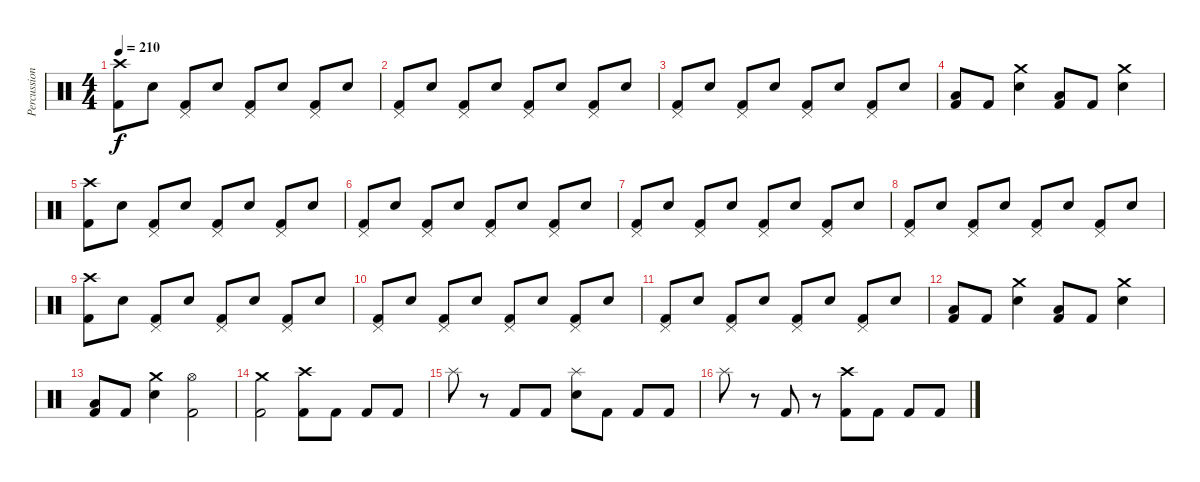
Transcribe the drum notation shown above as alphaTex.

\track ("Percussion" "Percussion") {instrument percussion}
\staff {score}
\articulation defaults
\ts (4 4)
\tempo 210
\clef neutral
\ks c
("Crash high (hit)" "Kick (hit) 2").8{dy f} "Snare (hit) 2".8 ("Pedal Hi-Hat (hit)" "Kick (hit) 2").8 "Snare (hit) 2".8 ("Pedal Hi-Hat (hit)" "Kick (hit) 2").8 "Snare (hit) 2".8 ("Pedal Hi-Hat (hit)" "Kick (hit) 2").8 "Snare (hit) 2".8 |
("Pedal Hi-Hat (hit)" "Kick (hit) 2").8 "Snare (hit) 2".8 ("Pedal Hi-Hat (hit)" "Kick (hit) 2").8 "Snare (hit) 2".8 ("Pedal Hi-Hat (hit)" "Kick (hit) 2").8 "Snare (hit) 2".8 ("Pedal Hi-Hat (hit)" "Kick (hit) 2").8 "Snare (hit) 2".8 |
("Pedal Hi-Hat (hit)" "Kick (hit) 2").8 "Snare (hit) 2".8 ("Pedal Hi-Hat (hit)" "Kick (hit) 2").8 "Snare (hit) 2".8 ("Pedal Hi-Hat (hit)" "Kick (hit) 2").8 "Snare (hit) 2".8 ("Pedal Hi-Hat (hit)" "Kick (hit) 2").8 "Snare (hit) 2".8 |
("Low Floor Tom (hit)" "Kick (hit) 2").8{volume 14} "Kick (hit) 2".8 ("Crash medium (hit)" "Snare (hit) 2").4 ("Low Floor Tom (hit)" "Kick (hit) 2").8 "Kick (hit) 2".8 ("Crash medium (hit)" "Snare (hit) 2").4 |
("Crash high (hit)" "Kick (hit) 2").8 "Snare (hit) 2".8 ("Pedal Hi-Hat (hit)" "Kick (hit) 2").8 "Snare (hit) 2".8 ("Pedal Hi-Hat (hit)" "Kick (hit) 2").8 "Snare (hit) 2".8 ("Pedal Hi-Hat (hit)" "Kick (hit) 2").8 "Snare (hit) 2".8 |
("Pedal Hi-Hat (hit)" "Kick (hit) 2").8 "Snare (hit) 2".8 ("Pedal Hi-Hat (hit)" "Kick (hit) 2").8 "Snare (hit) 2".8 ("Pedal Hi-Hat (hit)" "Kick (hit) 2").8 "Snare (hit) 2".8 ("Pedal Hi-Hat (hit)" "Kick (hit) 2").8 "Snare (hit) 2".8 |
("Pedal Hi-Hat (hit)" "Kick (hit) 2").8 "Snare (hit) 2".8 ("Pedal Hi-Hat (hit)" "Kick (hit) 2").8 "Snare (hit) 2".8 ("Pedal Hi-Hat (hit)" "Kick (hit) 2").8 "Snare (hit) 2".8 ("Pedal Hi-Hat (hit)" "Kick (hit) 2").8 "Snare (hit) 2".8 |
("Pedal Hi-Hat (hit)" "Kick (hit) 2").8 "Snare (hit) 2".8 ("Pedal Hi-Hat (hit)" "Kick (hit) 2").8 "Snare (hit) 2".8 ("Pedal Hi-Hat (hit)" "Kick (hit) 2").8 "Snare (hit) 2".8 ("Pedal Hi-Hat (hit)" "Kick (hit) 2").8 "Snare (hit) 2".8 |
("Crash high (hit)" "Kick (hit) 2").8 "Snare (hit) 2".8 ("Pedal Hi-Hat (hit)" "Kick (hit) 2").8 "Snare (hit) 2".8 ("Pedal Hi-Hat (hit)" "Kick (hit) 2").8 "Snare (hit) 2".8 ("Pedal Hi-Hat (hit)" "Kick (hit) 2").8 "Snare (hit) 2".8 |
("Pedal Hi-Hat (hit)" "Kick (hit) 2").8 "Snare (hit) 2".8 ("Pedal Hi-Hat (hit)" "Kick (hit) 2").8 "Snare (hit) 2".8 ("Pedal Hi-Hat (hit)" "Kick (hit) 2").8 "Snare (hit) 2".8 ("Pedal Hi-Hat (hit)" "Kick (hit) 2").8 "Snare (hit) 2".8 |
("Pedal Hi-Hat (hit)" "Kick (hit) 2").8 "Snare (hit) 2".8 ("Pedal Hi-Hat (hit)" "Kick (hit) 2").8 "Snare (hit) 2".8 ("Pedal Hi-Hat (hit)" "Kick (hit) 2").8 "Snare (hit) 2".8 ("Pedal Hi-Hat (hit)" "Kick (hit) 2").8 "Snare (hit) 2".8 |
("Low Floor Tom (hit)" "Kick (hit) 2").8{volume 14} "Kick (hit) 2".8 ("Crash medium (hit)" "Snare (hit) 2").4 ("Low Floor Tom (hit)" "Kick (hit) 2").8 "Kick (hit) 2".8 ("Crash medium (hit)" "Snare (hit) 2").4 |
("Low Floor Tom (hit)" "Kick (hit) 2").8 "Kick (hit) 2".8 ("Crash medium (hit)" "Snare (hit) 2").4 ("Hi-Hat (open)" "Kick (hit) 2").2 |
("Crash medium (hit)" "Kick (hit) 2").2 ("Crash high (hit)" "Kick (hit) 2").8 "Kick (hit) 2".8 "Kick (hit) 2".8 "Kick (hit) 2".8 |
"Splash (hit)".8 r.8 "Kick (hit) 2".8 "Kick (hit) 2".8 ("Splash (hit)" "Snare (hit) 2").8 "Kick (hit) 2".8 "Kick (hit) 2".8 "Kick (hit) 2".8 |
"Splash (hit)".8 r.8 "Kick (hit) 2".8 r.8 ("Crash high (hit)" "Kick (hit) 2").8 "Kick (hit) 2".8 "Kick (hit) 2".8 "Kick (hit) 2".8
